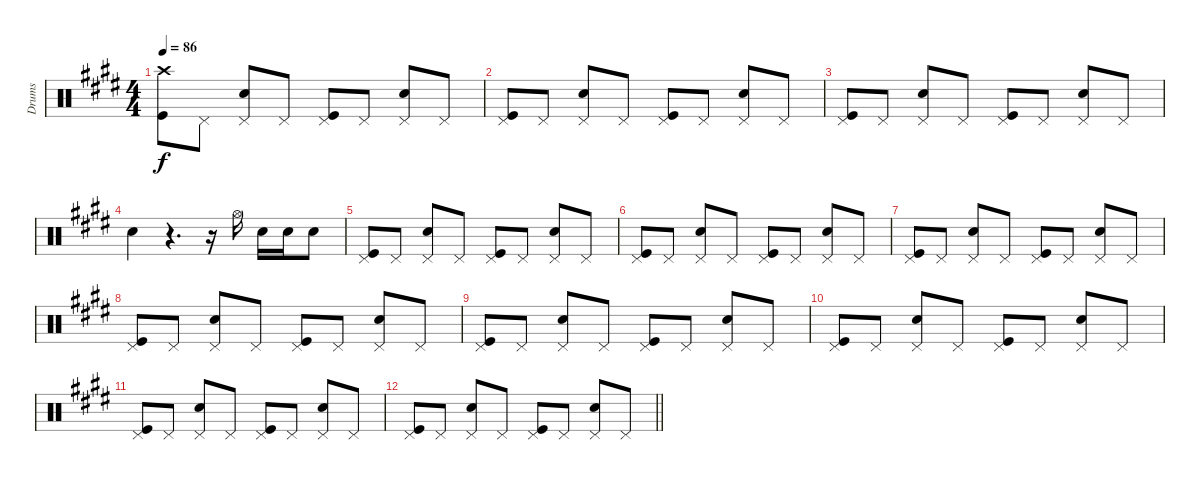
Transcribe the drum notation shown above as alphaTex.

\track ("Drums" "Drums") {instrument percussion}
\staff {score}
\articulation defaults
\ts (4 4)
\tempo 86
\clef neutral
\ks e
("Crash high (hit)" "Kick (hit)").8{dy f} "Pedal Hi-Hat (hit)".8 ("Pedal Hi-Hat (hit)" "Snare (hit) 2").8 "Pedal Hi-Hat (hit)".8 ("Pedal Hi-Hat (hit)" "Kick (hit)").8 "Pedal Hi-Hat (hit)".8 ("Pedal Hi-Hat (hit)" "Snare (hit) 2").8 "Pedal Hi-Hat (hit)".8 |
("Pedal Hi-Hat (hit)" "Kick (hit)").8 "Pedal Hi-Hat (hit)".8 ("Pedal Hi-Hat (hit)" "Snare (hit) 2").8 "Pedal Hi-Hat (hit)".8 ("Pedal Hi-Hat (hit)" "Kick (hit)").8 "Pedal Hi-Hat (hit)".8 ("Pedal Hi-Hat (hit)" "Snare (hit) 2").8 "Pedal Hi-Hat (hit)".8 |
("Pedal Hi-Hat (hit)" "Kick (hit)").8 "Pedal Hi-Hat (hit)".8 ("Pedal Hi-Hat (hit)" "Snare (hit) 2").8 "Pedal Hi-Hat (hit)".8 ("Pedal Hi-Hat (hit)" "Kick (hit)").8 "Pedal Hi-Hat (hit)".8 ("Pedal Hi-Hat (hit)" "Snare (hit) 2").8 "Pedal Hi-Hat (hit)".8 |
"Snare (hit) 2".4 r.4{d} r.16 "Hi-Hat (open)".16 "Snare (hit) 2".16 "Snare (hit) 2".16 "Snare (hit) 2".8 |
("Pedal Hi-Hat (hit)" "Kick (hit)").8 "Pedal Hi-Hat (hit)".8 ("Pedal Hi-Hat (hit)" "Snare (hit) 2").8 "Pedal Hi-Hat (hit)".8 ("Pedal Hi-Hat (hit)" "Kick (hit)").8 "Pedal Hi-Hat (hit)".8 ("Pedal Hi-Hat (hit)" "Snare (hit) 2").8 "Pedal Hi-Hat (hit)".8 |
("Pedal Hi-Hat (hit)" "Kick (hit)").8 "Pedal Hi-Hat (hit)".8 ("Pedal Hi-Hat (hit)" "Snare (hit) 2").8 "Pedal Hi-Hat (hit)".8 ("Pedal Hi-Hat (hit)" "Kick (hit)").8 "Pedal Hi-Hat (hit)".8 ("Pedal Hi-Hat (hit)" "Snare (hit) 2").8 "Pedal Hi-Hat (hit)".8 |
("Pedal Hi-Hat (hit)" "Kick (hit)").8 "Pedal Hi-Hat (hit)".8 ("Pedal Hi-Hat (hit)" "Snare (hit) 2").8 "Pedal Hi-Hat (hit)".8 ("Pedal Hi-Hat (hit)" "Kick (hit)").8 "Pedal Hi-Hat (hit)".8 ("Pedal Hi-Hat (hit)" "Snare (hit) 2").8 "Pedal Hi-Hat (hit)".8 |
("Pedal Hi-Hat (hit)" "Kick (hit)").8 "Pedal Hi-Hat (hit)".8 ("Pedal Hi-Hat (hit)" "Snare (hit) 2").8 "Pedal Hi-Hat (hit)".8 ("Pedal Hi-Hat (hit)" "Kick (hit)").8 "Pedal Hi-Hat (hit)".8 ("Pedal Hi-Hat (hit)" "Snare (hit) 2").8 "Pedal Hi-Hat (hit)".8 |
("Pedal Hi-Hat (hit)" "Kick (hit)").8 "Pedal Hi-Hat (hit)".8 ("Pedal Hi-Hat (hit)" "Snare (hit) 2").8 "Pedal Hi-Hat (hit)".8 ("Pedal Hi-Hat (hit)" "Kick (hit)").8 "Pedal Hi-Hat (hit)".8 ("Pedal Hi-Hat (hit)" "Snare (hit) 2").8 "Pedal Hi-Hat (hit)".8 |
("Pedal Hi-Hat (hit)" "Kick (hit)").8 "Pedal Hi-Hat (hit)".8 ("Pedal Hi-Hat (hit)" "Snare (hit) 2").8 "Pedal Hi-Hat (hit)".8 ("Pedal Hi-Hat (hit)" "Kick (hit)").8 "Pedal Hi-Hat (hit)".8 ("Pedal Hi-Hat (hit)" "Snare (hit) 2").8 "Pedal Hi-Hat (hit)".8 |
("Pedal Hi-Hat (hit)" "Kick (hit)").8 "Pedal Hi-Hat (hit)".8 ("Pedal Hi-Hat (hit)" "Snare (hit) 2").8 "Pedal Hi-Hat (hit)".8 ("Pedal Hi-Hat (hit)" "Kick (hit)").8 "Pedal Hi-Hat (hit)".8 ("Pedal Hi-Hat (hit)" "Snare (hit) 2").8 "Pedal Hi-Hat (hit)".8 |
\barLineRight lightlight
("Pedal Hi-Hat (hit)" "Kick (hit)").8 "Pedal Hi-Hat (hit)".8 ("Pedal Hi-Hat (hit)" "Snare (hit) 2").8 "Pedal Hi-Hat (hit)".8 ("Pedal Hi-Hat (hit)" "Kick (hit)").8 "Pedal Hi-Hat (hit)".8 ("Pedal Hi-Hat (hit)" "Snare (hit) 2").8 "Pedal Hi-Hat (hit)".8
